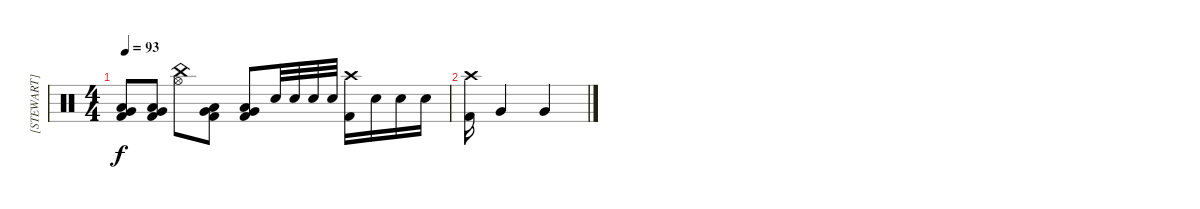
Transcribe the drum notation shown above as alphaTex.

\track ("[STEWART]" "[STEWART]") {instrument percussion}
\staff
\articulation defaults
\ts (4 4)
\tempo 93
\clef neutral
\ks c
("Very Low Tom (hit)" "Low Tom (hit)" "Kick (hit) 2").8{dy f} ("Very Low Tom (hit)" "Low Tom (hit)" "Kick (hit) 2").8 ("Hi-Hat (open)" "China (hit)").8 ("Very Low Tom (hit)" "Low Tom (hit)" "Kick (hit) 2").8 ("Very Low Tom (hit)" "Low Tom (hit)" "Kick (hit) 2").8 "Snare (hit) 2".32 "Snare (hit) 2".32 "Snare (hit) 2".32 "Snare (hit) 2".32 ("Crash high (hit)" "Kick (hit) 2").16 "Snare (hit) 2".16 "Snare (hit) 2".16 "Snare (hit) 2".16 |
("Crash high (hit)" "Kick (hit) 2").16 "Very Low Tom (hit)".4{volume 0} "Very Low Tom (hit)".4{volume 0}
